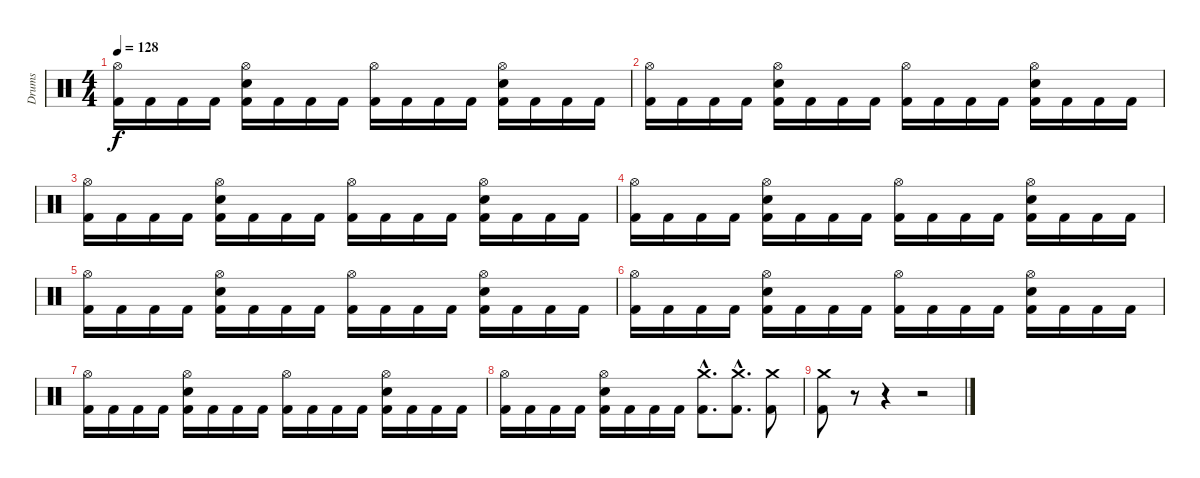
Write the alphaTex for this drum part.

\track ("Drums" "Drums") {instrument percussion}
\staff {score}
\articulation defaults
\ts (4 4)
\tempo 128
\clef neutral
\ks c
("Hi-Hat (open)" "Kick (hit) 2").16{dy f} "Kick (hit) 2".16 "Kick (hit) 2".16 "Kick (hit) 2".16 ("Hi-Hat (open)" "Snare (hit) 2" "Kick (hit) 2").16 "Kick (hit) 2".16 "Kick (hit) 2".16 "Kick (hit) 2".16 ("Hi-Hat (open)" "Kick (hit) 2").16 "Kick (hit) 2".16 "Kick (hit) 2".16 "Kick (hit) 2".16 ("Hi-Hat (open)" "Snare (hit) 2" "Kick (hit) 2").16 "Kick (hit) 2".16 "Kick (hit) 2".16 "Kick (hit) 2".16 |
("Hi-Hat (open)" "Kick (hit) 2").16 "Kick (hit) 2".16 "Kick (hit) 2".16 "Kick (hit) 2".16 ("Hi-Hat (open)" "Snare (hit) 2" "Kick (hit) 2").16 "Kick (hit) 2".16 "Kick (hit) 2".16 "Kick (hit) 2".16 ("Hi-Hat (open)" "Kick (hit) 2").16 "Kick (hit) 2".16 "Kick (hit) 2".16 "Kick (hit) 2".16 ("Hi-Hat (open)" "Snare (hit) 2" "Kick (hit) 2").16 "Kick (hit) 2".16 "Kick (hit) 2".16 "Kick (hit) 2".16 |
("Hi-Hat (open)" "Kick (hit) 2").16 "Kick (hit) 2".16 "Kick (hit) 2".16 "Kick (hit) 2".16 ("Hi-Hat (open)" "Snare (hit) 2" "Kick (hit) 2").16 "Kick (hit) 2".16 "Kick (hit) 2".16 "Kick (hit) 2".16 ("Hi-Hat (open)" "Kick (hit) 2").16 "Kick (hit) 2".16 "Kick (hit) 2".16 "Kick (hit) 2".16 ("Hi-Hat (open)" "Snare (hit) 2" "Kick (hit) 2").16 "Kick (hit) 2".16 "Kick (hit) 2".16 "Kick (hit) 2".16 |
("Hi-Hat (open)" "Kick (hit) 2").16 "Kick (hit) 2".16 "Kick (hit) 2".16 "Kick (hit) 2".16 ("Hi-Hat (open)" "Snare (hit) 2" "Kick (hit) 2").16 "Kick (hit) 2".16 "Kick (hit) 2".16 "Kick (hit) 2".16 ("Hi-Hat (open)" "Kick (hit) 2").16 "Kick (hit) 2".16 "Kick (hit) 2".16 "Kick (hit) 2".16 ("Hi-Hat (open)" "Snare (hit) 2" "Kick (hit) 2").16 "Kick (hit) 2".16 "Kick (hit) 2".16 "Kick (hit) 2".16 |
("Hi-Hat (open)" "Kick (hit) 2").16 "Kick (hit) 2".16 "Kick (hit) 2".16 "Kick (hit) 2".16 ("Hi-Hat (open)" "Snare (hit) 2" "Kick (hit) 2").16 "Kick (hit) 2".16 "Kick (hit) 2".16 "Kick (hit) 2".16 ("Hi-Hat (open)" "Kick (hit) 2").16 "Kick (hit) 2".16 "Kick (hit) 2".16 "Kick (hit) 2".16 ("Hi-Hat (open)" "Snare (hit) 2" "Kick (hit) 2").16 "Kick (hit) 2".16 "Kick (hit) 2".16 "Kick (hit) 2".16 |
("Hi-Hat (open)" "Kick (hit) 2").16 "Kick (hit) 2".16 "Kick (hit) 2".16 "Kick (hit) 2".16 ("Hi-Hat (open)" "Snare (hit) 2" "Kick (hit) 2").16 "Kick (hit) 2".16 "Kick (hit) 2".16 "Kick (hit) 2".16 ("Hi-Hat (open)" "Kick (hit) 2").16 "Kick (hit) 2".16 "Kick (hit) 2".16 "Kick (hit) 2".16 ("Hi-Hat (open)" "Snare (hit) 2" "Kick (hit) 2").16 "Kick (hit) 2".16 "Kick (hit) 2".16 "Kick (hit) 2".16 |
("Hi-Hat (open)" "Kick (hit) 2").16 "Kick (hit) 2".16 "Kick (hit) 2".16 "Kick (hit) 2".16 ("Hi-Hat (open)" "Snare (hit) 2" "Kick (hit) 2").16 "Kick (hit) 2".16 "Kick (hit) 2".16 "Kick (hit) 2".16 ("Hi-Hat (open)" "Kick (hit) 2").16 "Kick (hit) 2".16 "Kick (hit) 2".16 "Kick (hit) 2".16 ("Hi-Hat (open)" "Snare (hit) 2" "Kick (hit) 2").16 "Kick (hit) 2".16 "Kick (hit) 2".16 "Kick (hit) 2".16 |
("Hi-Hat (open)" "Kick (hit) 2").16 "Kick (hit) 2".16 "Kick (hit) 2".16 "Kick (hit) 2".16 ("Hi-Hat (open)" "Snare (hit) 2" "Kick (hit) 2").16 "Kick (hit) 2".16 "Kick (hit) 2".16 "Kick (hit) 2".16 ("Crash medium (hit)"{hac} "Kick (hit) 2"{hac}).8{d} ("Crash medium (hit)"{hac} "Kick (hit) 2"{hac}).8{d} ("Crash medium (hit)" "Kick (hit) 2").8 |
("Crash medium (hit)" "Kick (hit) 2").8 r.8 r.4 r.2
